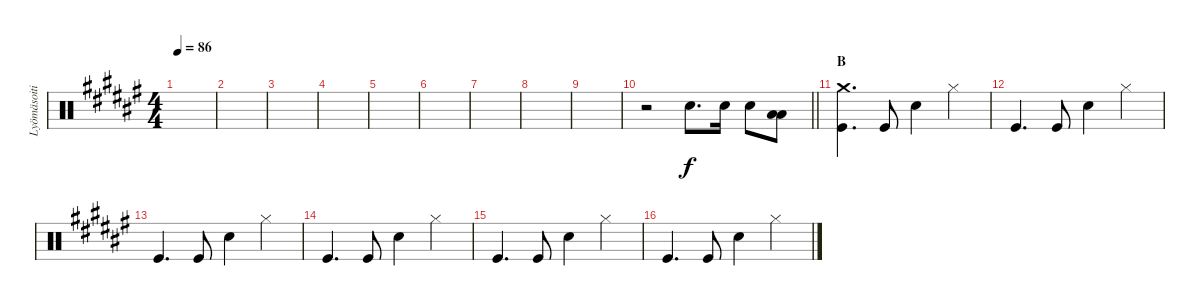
\track ("Lyömäsoitin" "Lyömäsoiti") {instrument percussion}
\staff {score}
\articulation defaults
\ts (4 4)
\tempo 86
\clef neutral
\ks f#
|
|
|
|
|
|
|
|
|
\barLineRight lightlight
r.2 "Snare (hit) 2".8{d} "Snare (hit) 2".16 "Snare (hit) 2".8 ("Low Tom (hit)" "Low Floor Tom (hit)").8 |
\section ("" "B")
("Crash medium (hit)" "Kick (hit)").4{d} "Kick (hit)".8 "Snare (hit) 2".4 "Hi-Hat (closed)".4 |
"Kick (hit)".4{d} "Kick (hit)".8 "Snare (hit) 2".4 "Hi-Hat (closed)".4 |
"Kick (hit)".4{d} "Kick (hit)".8 "Snare (hit) 2".4 "Hi-Hat (closed)".4 |
"Kick (hit)".4{d} "Kick (hit)".8 "Snare (hit) 2".4 "Hi-Hat (closed)".4 |
"Kick (hit)".4{d} "Kick (hit)".8 "Snare (hit) 2".4 "Hi-Hat (closed)".4 |
"Kick (hit)".4{d} "Kick (hit)".8 "Snare (hit) 2".4 "Hi-Hat (closed)".4
